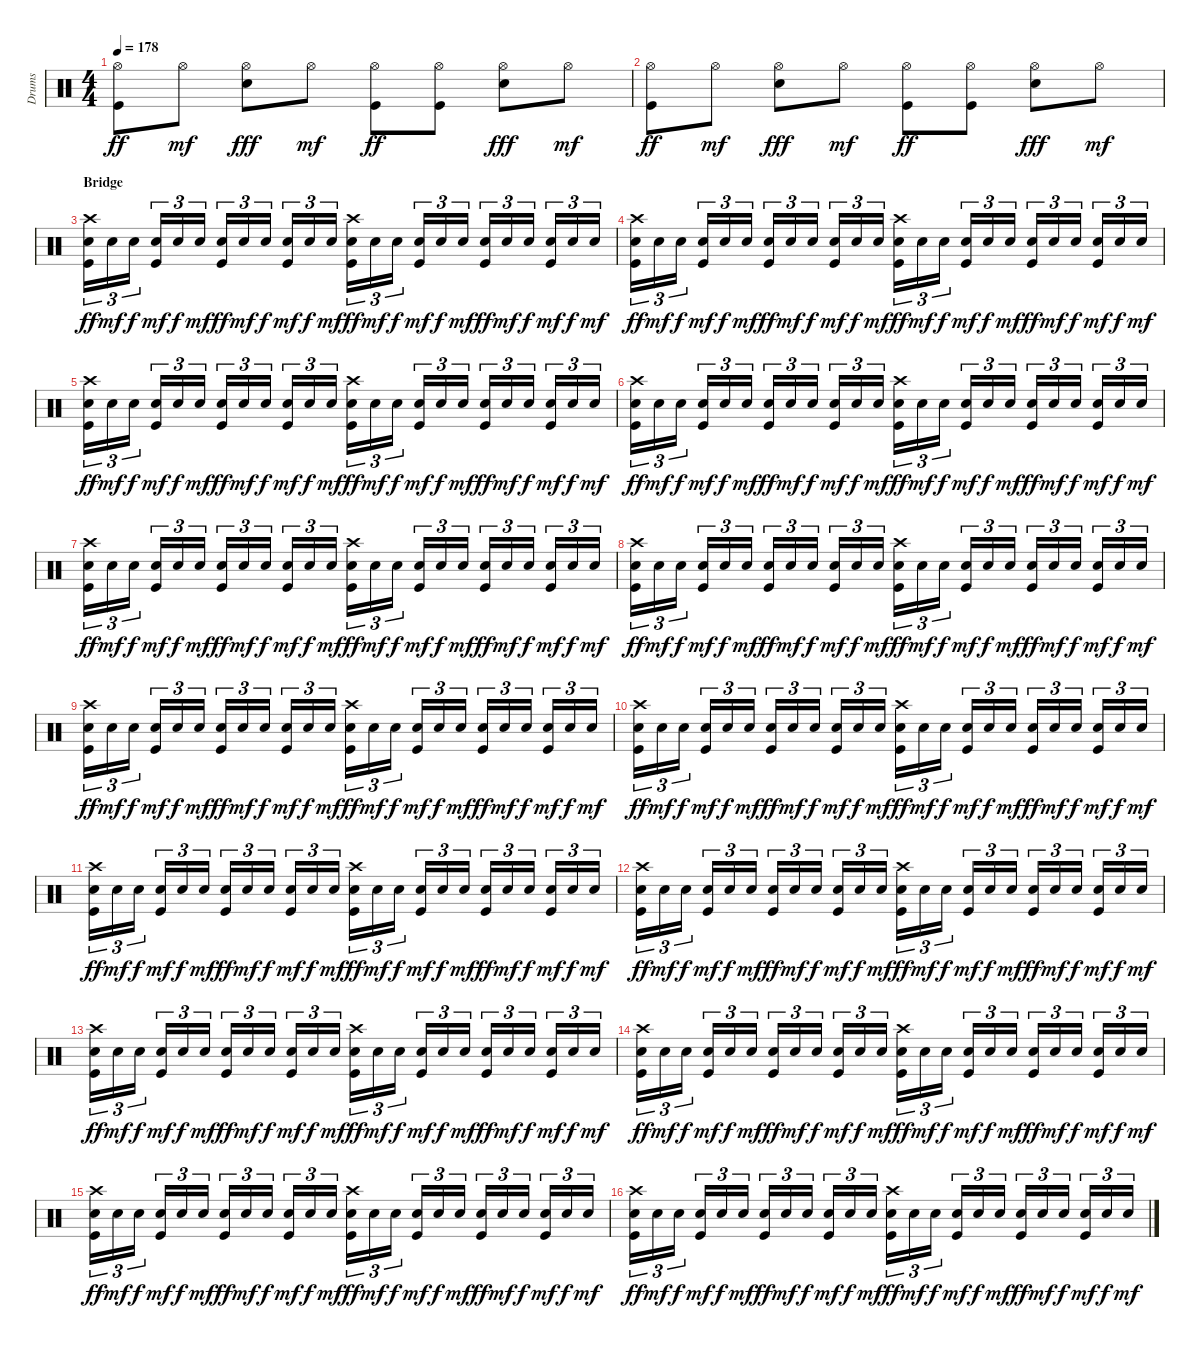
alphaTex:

\track ("Drums" "Drums") {instrument percussion}
\staff {score}
\articulation defaults
\ts (4 4)
\tempo 178
\clef neutral
\ks c
("Hi-Hat (open)" "Kick (hit)").8{dy ff} "Hi-Hat (open)".8{dy mf} ("Hi-Hat (open)" "Snare (hit) 2").8{dy fff} "Hi-Hat (open)".8{dy mf} ("Hi-Hat (open)" "Kick (hit)").8{dy ff} ("Hi-Hat (open)" "Kick (hit)").8 ("Hi-Hat (open)" "Snare (hit) 2").8{dy fff} "Hi-Hat (open)".8{dy mf} |
("Hi-Hat (open)" "Kick (hit)").8{dy ff} "Hi-Hat (open)".8{dy mf} ("Hi-Hat (open)" "Snare (hit) 2").8{dy fff} "Hi-Hat (open)".8{dy mf} ("Hi-Hat (open)" "Kick (hit)").8{dy ff} ("Hi-Hat (open)" "Kick (hit)").8 ("Hi-Hat (open)" "Snare (hit) 2").8{dy fff} "Hi-Hat (open)".8{dy mf} |
\section ("" "Bridge")
("Crash high (hit)" "Snare (hit) 2" "Kick (hit)").16{tu (3 2) dy ff} "Snare (hit) 2".16{tu (3 2) dy mf} "Snare (hit) 2".16{tu (3 2) dy f} ("Snare (hit) 2" "Kick (hit)").16{tu (3 2) dy mf} "Snare (hit) 2".16{tu (3 2) dy f} "Snare (hit) 2".16{tu (3 2) dy mf} ("Snare (hit) 2" "Kick (hit)").16{tu (3 2) dy ff} "Snare (hit) 2".16{tu (3 2) dy mf} "Snare (hit) 2".16{tu (3 2) dy f} ("Snare (hit) 2" "Kick (hit)").16{tu (3 2) dy mf} "Snare (hit) 2".16{tu (3 2) dy f} "Snare (hit) 2".16{tu (3 2) dy mf} ("Crash high (hit)" "Snare (hit) 2" "Kick (hit)").16{tu (3 2) dy ff} "Snare (hit) 2".16{tu (3 2) dy mf} "Snare (hit) 2".16{tu (3 2) dy f} ("Snare (hit) 2" "Kick (hit)").16{tu (3 2) dy mf} "Snare (hit) 2".16{tu (3 2) dy f} "Snare (hit) 2".16{tu (3 2) dy mf} ("Snare (hit) 2" "Kick (hit)").16{tu (3 2) dy ff} "Snare (hit) 2".16{tu (3 2) dy mf} "Snare (hit) 2".16{tu (3 2) dy f} ("Snare (hit) 2" "Kick (hit)").16{tu (3 2) dy mf} "Snare (hit) 2".16{tu (3 2) dy f} "Snare (hit) 2".16{tu (3 2) dy mf} |
("Crash high (hit)" "Snare (hit) 2" "Kick (hit)").16{tu (3 2) dy ff} "Snare (hit) 2".16{tu (3 2) dy mf} "Snare (hit) 2".16{tu (3 2) dy f} ("Snare (hit) 2" "Kick (hit)").16{tu (3 2) dy mf} "Snare (hit) 2".16{tu (3 2) dy f} "Snare (hit) 2".16{tu (3 2) dy mf} ("Snare (hit) 2" "Kick (hit)").16{tu (3 2) dy ff} "Snare (hit) 2".16{tu (3 2) dy mf} "Snare (hit) 2".16{tu (3 2) dy f} ("Snare (hit) 2" "Kick (hit)").16{tu (3 2) dy mf} "Snare (hit) 2".16{tu (3 2) dy f} "Snare (hit) 2".16{tu (3 2) dy mf} ("Crash high (hit)" "Snare (hit) 2" "Kick (hit)").16{tu (3 2) dy ff} "Snare (hit) 2".16{tu (3 2) dy mf} "Snare (hit) 2".16{tu (3 2) dy f} ("Snare (hit) 2" "Kick (hit)").16{tu (3 2) dy mf} "Snare (hit) 2".16{tu (3 2) dy f} "Snare (hit) 2".16{tu (3 2) dy mf} ("Snare (hit) 2" "Kick (hit)").16{tu (3 2) dy ff} "Snare (hit) 2".16{tu (3 2) dy mf} "Snare (hit) 2".16{tu (3 2) dy f} ("Snare (hit) 2" "Kick (hit)").16{tu (3 2) dy mf} "Snare (hit) 2".16{tu (3 2) dy f} "Snare (hit) 2".16{tu (3 2) dy mf} |
("Crash high (hit)" "Snare (hit) 2" "Kick (hit)").16{tu (3 2) dy ff} "Snare (hit) 2".16{tu (3 2) dy mf} "Snare (hit) 2".16{tu (3 2) dy f} ("Snare (hit) 2" "Kick (hit)").16{tu (3 2) dy mf} "Snare (hit) 2".16{tu (3 2) dy f} "Snare (hit) 2".16{tu (3 2) dy mf} ("Snare (hit) 2" "Kick (hit)").16{tu (3 2) dy ff} "Snare (hit) 2".16{tu (3 2) dy mf} "Snare (hit) 2".16{tu (3 2) dy f} ("Snare (hit) 2" "Kick (hit)").16{tu (3 2) dy mf} "Snare (hit) 2".16{tu (3 2) dy f} "Snare (hit) 2".16{tu (3 2) dy mf} ("Crash high (hit)" "Snare (hit) 2" "Kick (hit)").16{tu (3 2) dy ff} "Snare (hit) 2".16{tu (3 2) dy mf} "Snare (hit) 2".16{tu (3 2) dy f} ("Snare (hit) 2" "Kick (hit)").16{tu (3 2) dy mf} "Snare (hit) 2".16{tu (3 2) dy f} "Snare (hit) 2".16{tu (3 2) dy mf} ("Snare (hit) 2" "Kick (hit)").16{tu (3 2) dy ff} "Snare (hit) 2".16{tu (3 2) dy mf} "Snare (hit) 2".16{tu (3 2) dy f} ("Snare (hit) 2" "Kick (hit)").16{tu (3 2) dy mf} "Snare (hit) 2".16{tu (3 2) dy f} "Snare (hit) 2".16{tu (3 2) dy mf} |
("Crash high (hit)" "Snare (hit) 2" "Kick (hit)").16{tu (3 2) dy ff} "Snare (hit) 2".16{tu (3 2) dy mf} "Snare (hit) 2".16{tu (3 2) dy f} ("Snare (hit) 2" "Kick (hit)").16{tu (3 2) dy mf} "Snare (hit) 2".16{tu (3 2) dy f} "Snare (hit) 2".16{tu (3 2) dy mf} ("Snare (hit) 2" "Kick (hit)").16{tu (3 2) dy ff} "Snare (hit) 2".16{tu (3 2) dy mf} "Snare (hit) 2".16{tu (3 2) dy f} ("Snare (hit) 2" "Kick (hit)").16{tu (3 2) dy mf} "Snare (hit) 2".16{tu (3 2) dy f} "Snare (hit) 2".16{tu (3 2) dy mf} ("Crash high (hit)" "Snare (hit) 2" "Kick (hit)").16{tu (3 2) dy ff} "Snare (hit) 2".16{tu (3 2) dy mf} "Snare (hit) 2".16{tu (3 2) dy f} ("Snare (hit) 2" "Kick (hit)").16{tu (3 2) dy mf} "Snare (hit) 2".16{tu (3 2) dy f} "Snare (hit) 2".16{tu (3 2) dy mf} ("Snare (hit) 2" "Kick (hit)").16{tu (3 2) dy ff} "Snare (hit) 2".16{tu (3 2) dy mf} "Snare (hit) 2".16{tu (3 2) dy f} ("Snare (hit) 2" "Kick (hit)").16{tu (3 2) dy mf} "Snare (hit) 2".16{tu (3 2) dy f} "Snare (hit) 2".16{tu (3 2) dy mf} |
("Crash high (hit)" "Snare (hit) 2" "Kick (hit)").16{tu (3 2) dy ff} "Snare (hit) 2".16{tu (3 2) dy mf} "Snare (hit) 2".16{tu (3 2) dy f} ("Snare (hit) 2" "Kick (hit)").16{tu (3 2) dy mf} "Snare (hit) 2".16{tu (3 2) dy f} "Snare (hit) 2".16{tu (3 2) dy mf} ("Snare (hit) 2" "Kick (hit)").16{tu (3 2) dy ff} "Snare (hit) 2".16{tu (3 2) dy mf} "Snare (hit) 2".16{tu (3 2) dy f} ("Snare (hit) 2" "Kick (hit)").16{tu (3 2) dy mf} "Snare (hit) 2".16{tu (3 2) dy f} "Snare (hit) 2".16{tu (3 2) dy mf} ("Crash high (hit)" "Snare (hit) 2" "Kick (hit)").16{tu (3 2) dy ff} "Snare (hit) 2".16{tu (3 2) dy mf} "Snare (hit) 2".16{tu (3 2) dy f} ("Snare (hit) 2" "Kick (hit)").16{tu (3 2) dy mf} "Snare (hit) 2".16{tu (3 2) dy f} "Snare (hit) 2".16{tu (3 2) dy mf} ("Snare (hit) 2" "Kick (hit)").16{tu (3 2) dy ff} "Snare (hit) 2".16{tu (3 2) dy mf} "Snare (hit) 2".16{tu (3 2) dy f} ("Snare (hit) 2" "Kick (hit)").16{tu (3 2) dy mf} "Snare (hit) 2".16{tu (3 2) dy f} "Snare (hit) 2".16{tu (3 2) dy mf} |
("Crash high (hit)" "Snare (hit) 2" "Kick (hit)").16{tu (3 2) dy ff} "Snare (hit) 2".16{tu (3 2) dy mf} "Snare (hit) 2".16{tu (3 2) dy f} ("Snare (hit) 2" "Kick (hit)").16{tu (3 2) dy mf} "Snare (hit) 2".16{tu (3 2) dy f} "Snare (hit) 2".16{tu (3 2) dy mf} ("Snare (hit) 2" "Kick (hit)").16{tu (3 2) dy ff} "Snare (hit) 2".16{tu (3 2) dy mf} "Snare (hit) 2".16{tu (3 2) dy f} ("Snare (hit) 2" "Kick (hit)").16{tu (3 2) dy mf} "Snare (hit) 2".16{tu (3 2) dy f} "Snare (hit) 2".16{tu (3 2) dy mf} ("Crash high (hit)" "Snare (hit) 2" "Kick (hit)").16{tu (3 2) dy ff} "Snare (hit) 2".16{tu (3 2) dy mf} "Snare (hit) 2".16{tu (3 2) dy f} ("Snare (hit) 2" "Kick (hit)").16{tu (3 2) dy mf} "Snare (hit) 2".16{tu (3 2) dy f} "Snare (hit) 2".16{tu (3 2) dy mf} ("Snare (hit) 2" "Kick (hit)").16{tu (3 2) dy ff} "Snare (hit) 2".16{tu (3 2) dy mf} "Snare (hit) 2".16{tu (3 2) dy f} ("Snare (hit) 2" "Kick (hit)").16{tu (3 2) dy mf} "Snare (hit) 2".16{tu (3 2) dy f} "Snare (hit) 2".16{tu (3 2) dy mf} |
("Crash high (hit)" "Snare (hit) 2" "Kick (hit)").16{tu (3 2) dy ff} "Snare (hit) 2".16{tu (3 2) dy mf} "Snare (hit) 2".16{tu (3 2) dy f} ("Snare (hit) 2" "Kick (hit)").16{tu (3 2) dy mf} "Snare (hit) 2".16{tu (3 2) dy f} "Snare (hit) 2".16{tu (3 2) dy mf} ("Snare (hit) 2" "Kick (hit)").16{tu (3 2) dy ff} "Snare (hit) 2".16{tu (3 2) dy mf} "Snare (hit) 2".16{tu (3 2) dy f} ("Snare (hit) 2" "Kick (hit)").16{tu (3 2) dy mf} "Snare (hit) 2".16{tu (3 2) dy f} "Snare (hit) 2".16{tu (3 2) dy mf} ("Crash high (hit)" "Snare (hit) 2" "Kick (hit)").16{tu (3 2) dy ff} "Snare (hit) 2".16{tu (3 2) dy mf} "Snare (hit) 2".16{tu (3 2) dy f} ("Snare (hit) 2" "Kick (hit)").16{tu (3 2) dy mf} "Snare (hit) 2".16{tu (3 2) dy f} "Snare (hit) 2".16{tu (3 2) dy mf} ("Snare (hit) 2" "Kick (hit)").16{tu (3 2) dy ff} "Snare (hit) 2".16{tu (3 2) dy mf} "Snare (hit) 2".16{tu (3 2) dy f} ("Snare (hit) 2" "Kick (hit)").16{tu (3 2) dy mf} "Snare (hit) 2".16{tu (3 2) dy f} "Snare (hit) 2".16{tu (3 2) dy mf} |
("Crash high (hit)" "Snare (hit) 2" "Kick (hit)").16{tu (3 2) dy ff} "Snare (hit) 2".16{tu (3 2) dy mf} "Snare (hit) 2".16{tu (3 2) dy f} ("Snare (hit) 2" "Kick (hit)").16{tu (3 2) dy mf} "Snare (hit) 2".16{tu (3 2) dy f} "Snare (hit) 2".16{tu (3 2) dy mf} ("Snare (hit) 2" "Kick (hit)").16{tu (3 2) dy ff} "Snare (hit) 2".16{tu (3 2) dy mf} "Snare (hit) 2".16{tu (3 2) dy f} ("Snare (hit) 2" "Kick (hit)").16{tu (3 2) dy mf} "Snare (hit) 2".16{tu (3 2) dy f} "Snare (hit) 2".16{tu (3 2) dy mf} ("Crash high (hit)" "Snare (hit) 2" "Kick (hit)").16{tu (3 2) dy ff} "Snare (hit) 2".16{tu (3 2) dy mf} "Snare (hit) 2".16{tu (3 2) dy f} ("Snare (hit) 2" "Kick (hit)").16{tu (3 2) dy mf} "Snare (hit) 2".16{tu (3 2) dy f} "Snare (hit) 2".16{tu (3 2) dy mf} ("Snare (hit) 2" "Kick (hit)").16{tu (3 2) dy ff} "Snare (hit) 2".16{tu (3 2) dy mf} "Snare (hit) 2".16{tu (3 2) dy f} ("Snare (hit) 2" "Kick (hit)").16{tu (3 2) dy mf} "Snare (hit) 2".16{tu (3 2) dy f} "Snare (hit) 2".16{tu (3 2) dy mf} |
("Crash high (hit)" "Snare (hit) 2" "Kick (hit)").16{tu (3 2) dy ff} "Snare (hit) 2".16{tu (3 2) dy mf} "Snare (hit) 2".16{tu (3 2) dy f} ("Snare (hit) 2" "Kick (hit)").16{tu (3 2) dy mf} "Snare (hit) 2".16{tu (3 2) dy f} "Snare (hit) 2".16{tu (3 2) dy mf} ("Snare (hit) 2" "Kick (hit)").16{tu (3 2) dy ff} "Snare (hit) 2".16{tu (3 2) dy mf} "Snare (hit) 2".16{tu (3 2) dy f} ("Snare (hit) 2" "Kick (hit)").16{tu (3 2) dy mf} "Snare (hit) 2".16{tu (3 2) dy f} "Snare (hit) 2".16{tu (3 2) dy mf} ("Crash high (hit)" "Snare (hit) 2" "Kick (hit)").16{tu (3 2) dy ff} "Snare (hit) 2".16{tu (3 2) dy mf} "Snare (hit) 2".16{tu (3 2) dy f} ("Snare (hit) 2" "Kick (hit)").16{tu (3 2) dy mf} "Snare (hit) 2".16{tu (3 2) dy f} "Snare (hit) 2".16{tu (3 2) dy mf} ("Snare (hit) 2" "Kick (hit)").16{tu (3 2) dy ff} "Snare (hit) 2".16{tu (3 2) dy mf} "Snare (hit) 2".16{tu (3 2) dy f} ("Snare (hit) 2" "Kick (hit)").16{tu (3 2) dy mf} "Snare (hit) 2".16{tu (3 2) dy f} "Snare (hit) 2".16{tu (3 2) dy mf} |
("Crash high (hit)" "Snare (hit) 2" "Kick (hit)").16{tu (3 2) dy ff} "Snare (hit) 2".16{tu (3 2) dy mf} "Snare (hit) 2".16{tu (3 2) dy f} ("Snare (hit) 2" "Kick (hit)").16{tu (3 2) dy mf} "Snare (hit) 2".16{tu (3 2) dy f} "Snare (hit) 2".16{tu (3 2) dy mf} ("Snare (hit) 2" "Kick (hit)").16{tu (3 2) dy ff} "Snare (hit) 2".16{tu (3 2) dy mf} "Snare (hit) 2".16{tu (3 2) dy f} ("Snare (hit) 2" "Kick (hit)").16{tu (3 2) dy mf} "Snare (hit) 2".16{tu (3 2) dy f} "Snare (hit) 2".16{tu (3 2) dy mf} ("Crash high (hit)" "Snare (hit) 2" "Kick (hit)").16{tu (3 2) dy ff} "Snare (hit) 2".16{tu (3 2) dy mf} "Snare (hit) 2".16{tu (3 2) dy f} ("Snare (hit) 2" "Kick (hit)").16{tu (3 2) dy mf} "Snare (hit) 2".16{tu (3 2) dy f} "Snare (hit) 2".16{tu (3 2) dy mf} ("Snare (hit) 2" "Kick (hit)").16{tu (3 2) dy ff} "Snare (hit) 2".16{tu (3 2) dy mf} "Snare (hit) 2".16{tu (3 2) dy f} ("Snare (hit) 2" "Kick (hit)").16{tu (3 2) dy mf} "Snare (hit) 2".16{tu (3 2) dy f} "Snare (hit) 2".16{tu (3 2) dy mf} |
("Crash high (hit)" "Snare (hit) 2" "Kick (hit)").16{tu (3 2) dy ff} "Snare (hit) 2".16{tu (3 2) dy mf} "Snare (hit) 2".16{tu (3 2) dy f} ("Snare (hit) 2" "Kick (hit)").16{tu (3 2) dy mf} "Snare (hit) 2".16{tu (3 2) dy f} "Snare (hit) 2".16{tu (3 2) dy mf} ("Snare (hit) 2" "Kick (hit)").16{tu (3 2) dy ff} "Snare (hit) 2".16{tu (3 2) dy mf} "Snare (hit) 2".16{tu (3 2) dy f} ("Snare (hit) 2" "Kick (hit)").16{tu (3 2) dy mf} "Snare (hit) 2".16{tu (3 2) dy f} "Snare (hit) 2".16{tu (3 2) dy mf} ("Crash high (hit)" "Snare (hit) 2" "Kick (hit)").16{tu (3 2) dy ff} "Snare (hit) 2".16{tu (3 2) dy mf} "Snare (hit) 2".16{tu (3 2) dy f} ("Snare (hit) 2" "Kick (hit)").16{tu (3 2) dy mf} "Snare (hit) 2".16{tu (3 2) dy f} "Snare (hit) 2".16{tu (3 2) dy mf} ("Snare (hit) 2" "Kick (hit)").16{tu (3 2) dy ff} "Snare (hit) 2".16{tu (3 2) dy mf} "Snare (hit) 2".16{tu (3 2) dy f} ("Snare (hit) 2" "Kick (hit)").16{tu (3 2) dy mf} "Snare (hit) 2".16{tu (3 2) dy f} "Snare (hit) 2".16{tu (3 2) dy mf} |
("Crash high (hit)" "Snare (hit) 2" "Kick (hit)").16{tu (3 2) dy ff} "Snare (hit) 2".16{tu (3 2) dy mf} "Snare (hit) 2".16{tu (3 2) dy f} ("Snare (hit) 2" "Kick (hit)").16{tu (3 2) dy mf} "Snare (hit) 2".16{tu (3 2) dy f} "Snare (hit) 2".16{tu (3 2) dy mf} ("Snare (hit) 2" "Kick (hit)").16{tu (3 2) dy ff} "Snare (hit) 2".16{tu (3 2) dy mf} "Snare (hit) 2".16{tu (3 2) dy f} ("Snare (hit) 2" "Kick (hit)").16{tu (3 2) dy mf} "Snare (hit) 2".16{tu (3 2) dy f} "Snare (hit) 2".16{tu (3 2) dy mf} ("Crash high (hit)" "Snare (hit) 2" "Kick (hit)").16{tu (3 2) dy ff} "Snare (hit) 2".16{tu (3 2) dy mf} "Snare (hit) 2".16{tu (3 2) dy f} ("Snare (hit) 2" "Kick (hit)").16{tu (3 2) dy mf} "Snare (hit) 2".16{tu (3 2) dy f} "Snare (hit) 2".16{tu (3 2) dy mf} ("Snare (hit) 2" "Kick (hit)").16{tu (3 2) dy ff} "Snare (hit) 2".16{tu (3 2) dy mf} "Snare (hit) 2".16{tu (3 2) dy f} ("Snare (hit) 2" "Kick (hit)").16{tu (3 2) dy mf} "Snare (hit) 2".16{tu (3 2) dy f} "Snare (hit) 2".16{tu (3 2) dy mf} |
("Crash high (hit)" "Snare (hit) 2" "Kick (hit)").16{tu (3 2) dy ff} "Snare (hit) 2".16{tu (3 2) dy mf} "Snare (hit) 2".16{tu (3 2) dy f} ("Snare (hit) 2" "Kick (hit)").16{tu (3 2) dy mf} "Snare (hit) 2".16{tu (3 2) dy f} "Snare (hit) 2".16{tu (3 2) dy mf} ("Snare (hit) 2" "Kick (hit)").16{tu (3 2) dy ff} "Snare (hit) 2".16{tu (3 2) dy mf} "Snare (hit) 2".16{tu (3 2) dy f} ("Snare (hit) 2" "Kick (hit)").16{tu (3 2) dy mf} "Snare (hit) 2".16{tu (3 2) dy f} "Snare (hit) 2".16{tu (3 2) dy mf} ("Crash high (hit)" "Snare (hit) 2" "Kick (hit)").16{tu (3 2) dy ff} "Snare (hit) 2".16{tu (3 2) dy mf} "Snare (hit) 2".16{tu (3 2) dy f} ("Snare (hit) 2" "Kick (hit)").16{tu (3 2) dy mf} "Snare (hit) 2".16{tu (3 2) dy f} "Snare (hit) 2".16{tu (3 2) dy mf} ("Snare (hit) 2" "Kick (hit)").16{tu (3 2) dy ff} "Snare (hit) 2".16{tu (3 2) dy mf} "Snare (hit) 2".16{tu (3 2) dy f} ("Snare (hit) 2" "Kick (hit)").16{tu (3 2) dy mf} "Snare (hit) 2".16{tu (3 2) dy f} "Snare (hit) 2".16{tu (3 2) dy mf} |
("Crash high (hit)" "Snare (hit) 2" "Kick (hit)").16{tu (3 2) dy ff} "Snare (hit) 2".16{tu (3 2) dy mf} "Snare (hit) 2".16{tu (3 2) dy f} ("Snare (hit) 2" "Kick (hit)").16{tu (3 2) dy mf} "Snare (hit) 2".16{tu (3 2) dy f} "Snare (hit) 2".16{tu (3 2) dy mf} ("Snare (hit) 2" "Kick (hit)").16{tu (3 2) dy ff} "Snare (hit) 2".16{tu (3 2) dy mf} "Snare (hit) 2".16{tu (3 2) dy f} ("Snare (hit) 2" "Kick (hit)").16{tu (3 2) dy mf} "Snare (hit) 2".16{tu (3 2) dy f} "Snare (hit) 2".16{tu (3 2) dy mf} ("Crash high (hit)" "Snare (hit) 2" "Kick (hit)").16{tu (3 2) dy ff} "Snare (hit) 2".16{tu (3 2) dy mf} "Snare (hit) 2".16{tu (3 2) dy f} ("Snare (hit) 2" "Kick (hit)").16{tu (3 2) dy mf} "Snare (hit) 2".16{tu (3 2) dy f} "Snare (hit) 2".16{tu (3 2) dy mf} ("Snare (hit) 2" "Kick (hit)").16{tu (3 2) dy ff} "Snare (hit) 2".16{tu (3 2) dy mf} "Snare (hit) 2".16{tu (3 2) dy f} ("Snare (hit) 2" "Kick (hit)").16{tu (3 2) dy mf} "Snare (hit) 2".16{tu (3 2) dy f} "Snare (hit) 2".16{tu (3 2) dy mf}
